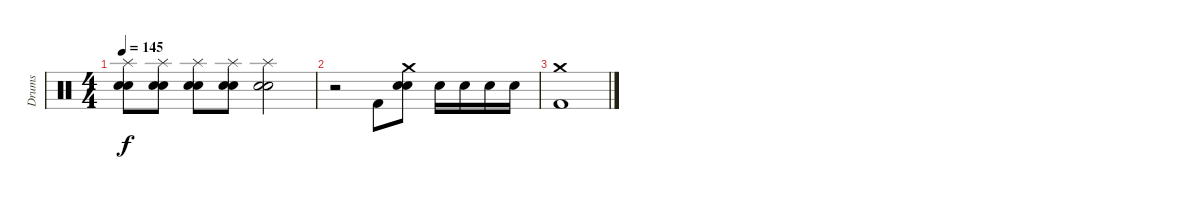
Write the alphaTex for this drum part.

\track ("Drums" "Drums") {instrument percussion}
\staff {score}
\articulation defaults
\ts (4 4)
\tempo 145
\clef neutral
\ks c
("Splash (hit)" "Electric Snare (hit)" "Snare (hit) 2").8{dy f} ("Splash (hit)" "Electric Snare (hit)" "Snare (hit) 2").8 ("Splash (hit)" "Electric Snare (hit)" "Snare (hit) 2").8 ("Splash (hit)" "Electric Snare (hit)" "Snare (hit) 2").8 ("Splash (hit)" "Electric Snare (hit)" "Snare (hit) 2").2 |
r.2 "Kick (hit) 2".8 ("Crash medium (hit)" "Electric Snare (hit)" "Snare (hit) 2").8 "Electric Snare (hit)".16 "Electric Snare (hit)".16 "Electric Snare (hit)".16 "Electric Snare (hit)".16 |
("Crash medium (hit)" "Kick (hit) 2").1
